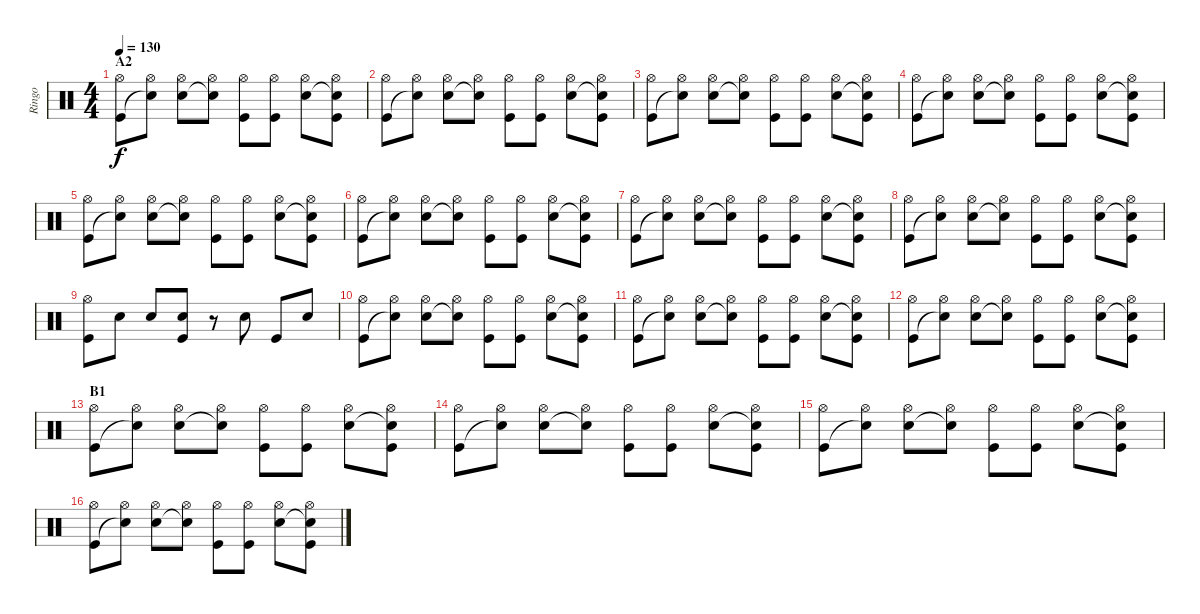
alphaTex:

\track ("Ringo" "Ringo") {instrument percussion}
\staff {score}
\articulation defaults
\ts (4 4)
\section ("" "A2")
\tempo 130
\clef neutral
\ks c
("Hi-Hat (open)" "Kick (hit)").8{dy f} ("Hi-Hat (open)" "Snare (hit)"{t}).8 ("Hi-Hat (open)" "Snare (hit) 2").8 ("Hi-Hat (open)" "Snare (hit)"{t}).8 ("Hi-Hat (open)" "Kick (hit)").8 ("Hi-Hat (open)" "Kick (hit)").8 ("Hi-Hat (open)" "Snare (hit) 2").8 ("Hi-Hat (open)" "Snare (hit)"{t} "Kick (hit)").8 |
("Hi-Hat (open)" "Kick (hit)").8 ("Hi-Hat (open)" "Snare (hit)"{t}).8 ("Hi-Hat (open)" "Snare (hit) 2").8 ("Hi-Hat (open)" "Snare (hit)"{t}).8 ("Hi-Hat (open)" "Kick (hit)").8 ("Hi-Hat (open)" "Kick (hit)").8 ("Hi-Hat (open)" "Snare (hit) 2").8 ("Hi-Hat (open)" "Snare (hit)"{t} "Kick (hit)").8 |
("Hi-Hat (open)" "Kick (hit)").8 ("Hi-Hat (open)" "Snare (hit)"{t}).8 ("Hi-Hat (open)" "Snare (hit) 2").8 ("Hi-Hat (open)" "Snare (hit)"{t}).8 ("Hi-Hat (open)" "Kick (hit)").8 ("Hi-Hat (open)" "Kick (hit)").8 ("Hi-Hat (open)" "Snare (hit) 2").8 ("Hi-Hat (open)" "Snare (hit)"{t} "Kick (hit)").8 |
("Hi-Hat (open)" "Kick (hit)").8 ("Hi-Hat (open)" "Snare (hit)"{t}).8 ("Hi-Hat (open)" "Snare (hit) 2").8 ("Hi-Hat (open)" "Snare (hit)"{t}).8 ("Hi-Hat (open)" "Kick (hit)").8 ("Hi-Hat (open)" "Kick (hit)").8 ("Hi-Hat (open)" "Snare (hit) 2").8 ("Hi-Hat (open)" "Snare (hit)"{t} "Kick (hit)").8 |
("Hi-Hat (open)" "Kick (hit)").8 ("Hi-Hat (open)" "Snare (hit)"{t}).8 ("Hi-Hat (open)" "Snare (hit) 2").8 ("Hi-Hat (open)" "Snare (hit)"{t}).8 ("Hi-Hat (open)" "Kick (hit)").8 ("Hi-Hat (open)" "Kick (hit)").8 ("Hi-Hat (open)" "Snare (hit) 2").8 ("Hi-Hat (open)" "Snare (hit)"{t} "Kick (hit)").8 |
("Hi-Hat (open)" "Kick (hit)").8 ("Hi-Hat (open)" "Snare (hit)"{t}).8 ("Hi-Hat (open)" "Snare (hit) 2").8 ("Hi-Hat (open)" "Snare (hit)"{t}).8 ("Hi-Hat (open)" "Kick (hit)").8 ("Hi-Hat (open)" "Kick (hit)").8 ("Hi-Hat (open)" "Snare (hit) 2").8 ("Hi-Hat (open)" "Snare (hit)"{t} "Kick (hit)").8 |
("Hi-Hat (open)" "Kick (hit)").8 ("Hi-Hat (open)" "Snare (hit)"{t}).8 ("Hi-Hat (open)" "Snare (hit) 2").8 ("Hi-Hat (open)" "Snare (hit)"{t}).8 ("Hi-Hat (open)" "Kick (hit)").8 ("Hi-Hat (open)" "Kick (hit)").8 ("Hi-Hat (open)" "Snare (hit) 2").8 ("Hi-Hat (open)" "Snare (hit)"{t} "Kick (hit)").8 |
("Hi-Hat (open)" "Kick (hit)").8 ("Hi-Hat (open)" "Snare (hit)"{t}).8 ("Hi-Hat (open)" "Snare (hit) 2").8 ("Hi-Hat (open)" "Snare (hit)"{t}).8 ("Hi-Hat (open)" "Kick (hit)").8 ("Hi-Hat (open)" "Kick (hit)").8 ("Hi-Hat (open)" "Snare (hit) 2").8 ("Hi-Hat (open)" "Snare (hit)"{t} "Kick (hit)").8 |
("Hi-Hat (open)" "Kick (hit)").8 "Snare (hit) 2".8 "Snare (hit) 2".8 ("Snare (hit) 2" "Kick (hit)").8 r.8 "Snare (hit) 2".8 "Kick (hit)".8 "Snare (hit) 2".8 |
("Hi-Hat (open)" "Kick (hit)").8 ("Hi-Hat (open)" "Snare (hit)"{t}).8 ("Hi-Hat (open)" "Snare (hit) 2").8 ("Hi-Hat (open)" "Snare (hit)"{t}).8 ("Hi-Hat (open)" "Kick (hit)").8 ("Hi-Hat (open)" "Kick (hit)").8 ("Hi-Hat (open)" "Snare (hit) 2").8 ("Hi-Hat (open)" "Snare (hit)"{t} "Kick (hit)").8 |
("Hi-Hat (open)" "Kick (hit)").8 ("Hi-Hat (open)" "Snare (hit)"{t}).8 ("Hi-Hat (open)" "Snare (hit) 2").8 ("Hi-Hat (open)" "Snare (hit)"{t}).8 ("Hi-Hat (open)" "Kick (hit)").8 ("Hi-Hat (open)" "Kick (hit)").8 ("Hi-Hat (open)" "Snare (hit) 2").8 ("Hi-Hat (open)" "Snare (hit)"{t} "Kick (hit)").8 |
("Hi-Hat (open)" "Kick (hit)").8 ("Hi-Hat (open)" "Snare (hit)"{t}).8 ("Hi-Hat (open)" "Snare (hit) 2").8 ("Hi-Hat (open)" "Snare (hit)"{t}).8 ("Hi-Hat (open)" "Kick (hit)").8 ("Hi-Hat (open)" "Kick (hit)").8 ("Hi-Hat (open)" "Snare (hit) 2").8 ("Hi-Hat (open)" "Snare (hit)"{t} "Kick (hit)").8 |
\section ("" "B1")
("Hi-Hat (open)" "Kick (hit)").8 ("Hi-Hat (open)" "Snare (hit)"{t}).8 ("Hi-Hat (open)" "Snare (hit) 2").8 ("Hi-Hat (open)" "Snare (hit)"{t}).8 ("Hi-Hat (open)" "Kick (hit)").8 ("Hi-Hat (open)" "Kick (hit)").8 ("Hi-Hat (open)" "Snare (hit) 2").8 ("Hi-Hat (open)" "Snare (hit)"{t} "Kick (hit)").8 |
("Hi-Hat (open)" "Kick (hit)").8 ("Hi-Hat (open)" "Snare (hit)"{t}).8 ("Hi-Hat (open)" "Snare (hit) 2").8 ("Hi-Hat (open)" "Snare (hit)"{t}).8 ("Hi-Hat (open)" "Kick (hit)").8 ("Hi-Hat (open)" "Kick (hit)").8 ("Hi-Hat (open)" "Snare (hit) 2").8 ("Hi-Hat (open)" "Snare (hit)"{t} "Kick (hit)").8 |
("Hi-Hat (open)" "Kick (hit)").8 ("Hi-Hat (open)" "Snare (hit)"{t}).8 ("Hi-Hat (open)" "Snare (hit) 2").8 ("Hi-Hat (open)" "Snare (hit)"{t}).8 ("Hi-Hat (open)" "Kick (hit)").8 ("Hi-Hat (open)" "Kick (hit)").8 ("Hi-Hat (open)" "Snare (hit) 2").8 ("Hi-Hat (open)" "Snare (hit)"{t} "Kick (hit)").8 |
("Hi-Hat (open)" "Kick (hit)").8 ("Hi-Hat (open)" "Snare (hit)"{t}).8 ("Hi-Hat (open)" "Snare (hit) 2").8 ("Hi-Hat (open)" "Snare (hit)"{t}).8 ("Hi-Hat (open)" "Kick (hit)").8 ("Hi-Hat (open)" "Kick (hit)").8 ("Hi-Hat (open)" "Snare (hit) 2").8 ("Hi-Hat (open)" "Snare (hit)"{t} "Kick (hit)").8
